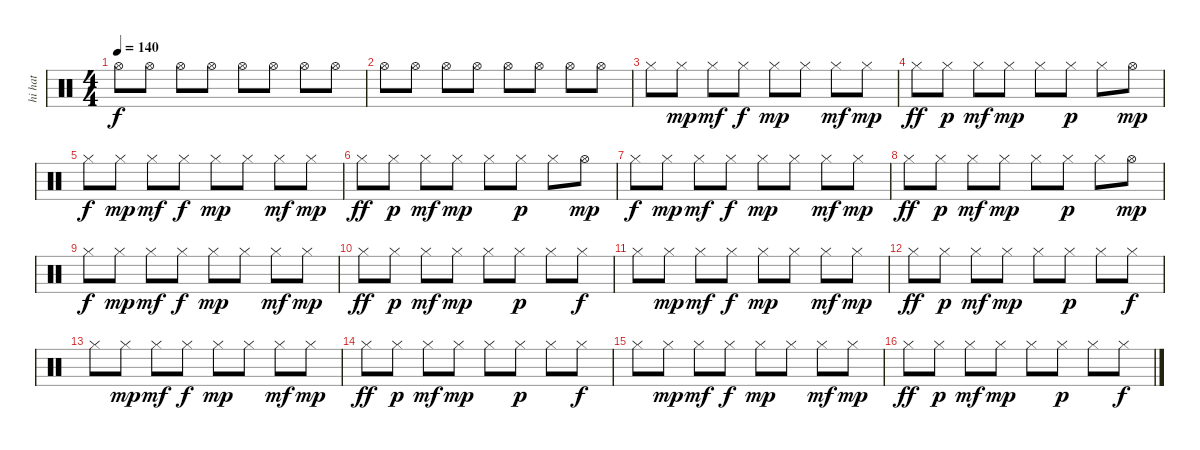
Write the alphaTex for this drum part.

\track ("hi hat" "hi hat") {instrument percussion}
\staff {score}
\articulation defaults
\ts (4 4)
\tempo 140
\clef neutral
\ks c "Hi-Hat (open)".8{dy f} "Hi-Hat (open)".8 "Hi-Hat (open)".8 "Hi-Hat (open)".8 "Hi-Hat (open)".8 "Hi-Hat (open)".8 "Hi-Hat (open)".8 "Hi-Hat (open)".8
|
"Hi-Hat (open)".8 "Hi-Hat (open)".8 "Hi-Hat (open)".8 "Hi-Hat (open)".8 "Hi-Hat (open)".8 "Hi-Hat (open)".8 "Hi-Hat (open)".8 "Hi-Hat (open)".8 |
"Hi-Hat (closed)".8 "Hi-Hat (closed)".8{dy mp} "Hi-Hat (closed)".8{dy mf} "Hi-Hat (closed)".8{dy f} "Hi-Hat (closed)".8{dy mp} "Hi-Hat (closed)".8 "Hi-Hat (closed)".8{dy mf} "Hi-Hat (closed)".8{dy mp} |
"Hi-Hat (closed)".8{dy ff} "Hi-Hat (closed)".8{dy p} "Hi-Hat (closed)".8{dy mf} "Hi-Hat (closed)".8{dy mp} "Hi-Hat (closed)".8 "Hi-Hat (closed)".8{dy p} "Hi-Hat (closed)".8 "Hi-Hat (open)".8{dy mp} |
"Hi-Hat (closed)".8{dy f} "Hi-Hat (closed)".8{dy mp} "Hi-Hat (closed)".8{dy mf} "Hi-Hat (closed)".8{dy f} "Hi-Hat (closed)".8{dy mp} "Hi-Hat (closed)".8 "Hi-Hat (closed)".8{dy mf} "Hi-Hat (closed)".8{dy mp} |
"Hi-Hat (closed)".8{dy ff} "Hi-Hat (closed)".8{dy p} "Hi-Hat (closed)".8{dy mf} "Hi-Hat (closed)".8{dy mp} "Hi-Hat (closed)".8 "Hi-Hat (closed)".8{dy p} "Hi-Hat (closed)".8 "Hi-Hat (open)".8{dy mp} |
"Hi-Hat (closed)".8{dy f} "Hi-Hat (closed)".8{dy mp} "Hi-Hat (closed)".8{dy mf} "Hi-Hat (closed)".8{dy f} "Hi-Hat (closed)".8{dy mp} "Hi-Hat (closed)".8 "Hi-Hat (closed)".8{dy mf} "Hi-Hat (closed)".8{dy mp} |
"Hi-Hat (closed)".8{dy ff} "Hi-Hat (closed)".8{dy p} "Hi-Hat (closed)".8{dy mf} "Hi-Hat (closed)".8{dy mp} "Hi-Hat (closed)".8 "Hi-Hat (closed)".8{dy p} "Hi-Hat (closed)".8 "Hi-Hat (open)".8{dy mp} |
"Hi-Hat (closed)".8{dy f} "Hi-Hat (closed)".8{dy mp} "Hi-Hat (closed)".8{dy mf} "Hi-Hat (closed)".8{dy f} "Hi-Hat (closed)".8{dy mp} "Hi-Hat (closed)".8 "Hi-Hat (closed)".8{dy mf} "Hi-Hat (closed)".8{dy mp} |
"Hi-Hat (closed)".8{dy ff} "Hi-Hat (closed)".8{dy p} "Hi-Hat (closed)".8{dy mf} "Hi-Hat (closed)".8{dy mp} "Hi-Hat (closed)".8 "Hi-Hat (closed)".8{dy p} "Hi-Hat (closed)".8 "Hi-Hat (closed)".8{dy f} |
"Hi-Hat (closed)".8 "Hi-Hat (closed)".8{dy mp} "Hi-Hat (closed)".8{dy mf} "Hi-Hat (closed)".8{dy f} "Hi-Hat (closed)".8{dy mp} "Hi-Hat (closed)".8 "Hi-Hat (closed)".8{dy mf} "Hi-Hat (closed)".8{dy mp} |
"Hi-Hat (closed)".8{dy ff} "Hi-Hat (closed)".8{dy p} "Hi-Hat (closed)".8{dy mf} "Hi-Hat (closed)".8{dy mp} "Hi-Hat (closed)".8 "Hi-Hat (closed)".8{dy p} "Hi-Hat (closed)".8 "Hi-Hat (closed)".8{dy f} |
"Hi-Hat (closed)".8 "Hi-Hat (closed)".8{dy mp} "Hi-Hat (closed)".8{dy mf} "Hi-Hat (closed)".8{dy f} "Hi-Hat (closed)".8{dy mp} "Hi-Hat (closed)".8 "Hi-Hat (closed)".8{dy mf} "Hi-Hat (closed)".8{dy mp} |
"Hi-Hat (closed)".8{dy ff} "Hi-Hat (closed)".8{dy p} "Hi-Hat (closed)".8{dy mf} "Hi-Hat (closed)".8{dy mp} "Hi-Hat (closed)".8 "Hi-Hat (closed)".8{dy p} "Hi-Hat (closed)".8 "Hi-Hat (closed)".8{dy f} |
"Hi-Hat (closed)".8 "Hi-Hat (closed)".8{dy mp} "Hi-Hat (closed)".8{dy mf} "Hi-Hat (closed)".8{dy f} "Hi-Hat (closed)".8{dy mp} "Hi-Hat (closed)".8 "Hi-Hat (closed)".8{dy mf} "Hi-Hat (closed)".8{dy mp} |
"Hi-Hat (closed)".8{dy ff} "Hi-Hat (closed)".8{dy p} "Hi-Hat (closed)".8{dy mf} "Hi-Hat (closed)".8{dy mp} "Hi-Hat (closed)".8 "Hi-Hat (closed)".8{dy p} "Hi-Hat (closed)".8 "Hi-Hat (closed)".8{dy f}
